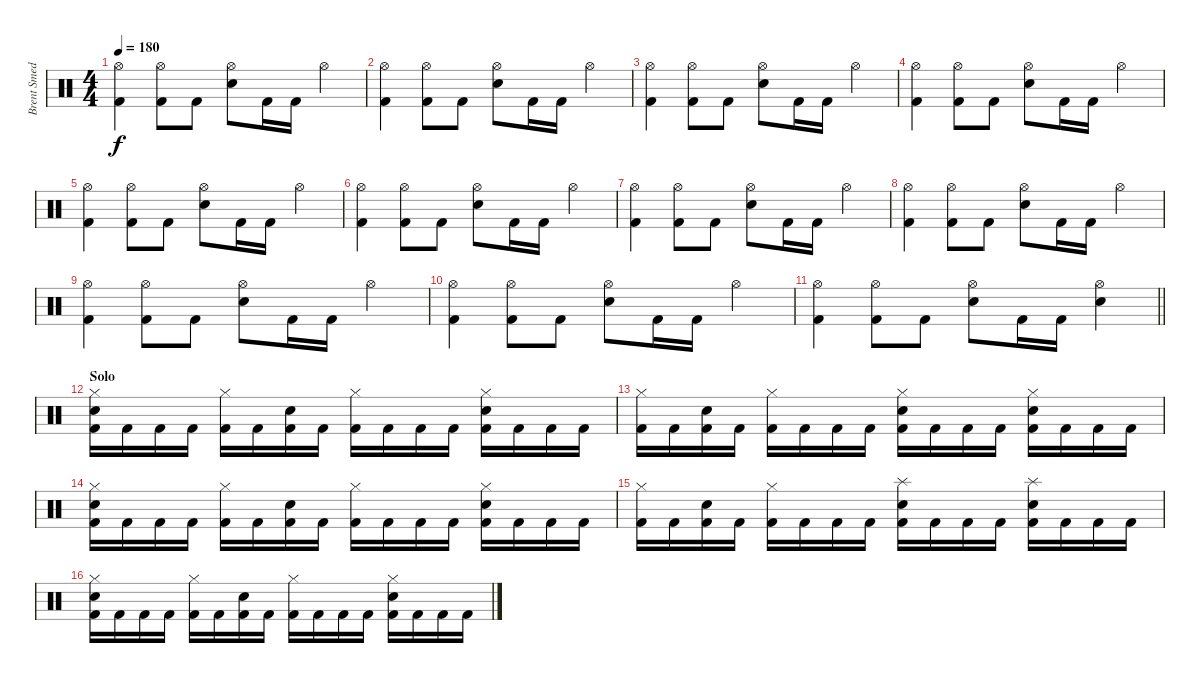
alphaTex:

\track ("Brent Smedley" "Brent Smed") {instrument percussion}
\staff {score}
\articulation defaults
\ts (4 4)
\tempo 180
\clef neutral
\ks c
("Hi-Hat (open)" "Kick (hit) 2").4{dy f} ("Hi-Hat (open)" "Kick (hit) 2").8 "Kick (hit) 2".8 ("Hi-Hat (open)" "Snare (hit) 2").8 "Kick (hit) 2".16 "Kick (hit) 2".16 "Hi-Hat (open)".4 |
("Hi-Hat (open)" "Kick (hit) 2").4 ("Hi-Hat (open)" "Kick (hit) 2").8 "Kick (hit) 2".8 ("Hi-Hat (open)" "Snare (hit) 2").8 "Kick (hit) 2".16 "Kick (hit) 2".16 "Hi-Hat (open)".4 |
("Hi-Hat (open)" "Kick (hit) 2").4 ("Hi-Hat (open)" "Kick (hit) 2").8 "Kick (hit) 2".8 ("Hi-Hat (open)" "Snare (hit) 2").8 "Kick (hit) 2".16 "Kick (hit) 2".16 "Hi-Hat (open)".4 |
("Hi-Hat (open)" "Kick (hit) 2").4 ("Hi-Hat (open)" "Kick (hit) 2").8 "Kick (hit) 2".8 ("Hi-Hat (open)" "Snare (hit) 2").8 "Kick (hit) 2".16 "Kick (hit) 2".16 "Hi-Hat (open)".4 |
("Hi-Hat (open)" "Kick (hit) 2").4 ("Hi-Hat (open)" "Kick (hit) 2").8 "Kick (hit) 2".8 ("Hi-Hat (open)" "Snare (hit) 2").8 "Kick (hit) 2".16 "Kick (hit) 2".16 "Hi-Hat (open)".4 |
("Hi-Hat (open)" "Kick (hit) 2").4 ("Hi-Hat (open)" "Kick (hit) 2").8 "Kick (hit) 2".8 ("Hi-Hat (open)" "Snare (hit) 2").8 "Kick (hit) 2".16 "Kick (hit) 2".16 "Hi-Hat (open)".4 |
("Hi-Hat (open)" "Kick (hit) 2").4 ("Hi-Hat (open)" "Kick (hit) 2").8 "Kick (hit) 2".8 ("Hi-Hat (open)" "Snare (hit) 2").8 "Kick (hit) 2".16 "Kick (hit) 2".16 "Hi-Hat (open)".4 |
("Hi-Hat (open)" "Kick (hit) 2").4 ("Hi-Hat (open)" "Kick (hit) 2").8 "Kick (hit) 2".8 ("Hi-Hat (open)" "Snare (hit) 2").8 "Kick (hit) 2".16 "Kick (hit) 2".16 "Hi-Hat (open)".4 |
("Hi-Hat (open)" "Kick (hit) 2").4 ("Hi-Hat (open)" "Kick (hit) 2").8 "Kick (hit) 2".8 ("Hi-Hat (open)" "Snare (hit) 2").8 "Kick (hit) 2".16 "Kick (hit) 2".16 "Hi-Hat (open)".4 |
("Hi-Hat (open)" "Kick (hit) 2").4 ("Hi-Hat (open)" "Kick (hit) 2").8 "Kick (hit) 2".8 ("Hi-Hat (open)" "Snare (hit) 2").8 "Kick (hit) 2".16 "Kick (hit) 2".16 "Hi-Hat (open)".4 |
\barLineRight lightlight
("Hi-Hat (open)" "Kick (hit) 2").4 ("Hi-Hat (open)" "Kick (hit) 2").8 "Kick (hit) 2".8 ("Hi-Hat (open)" "Snare (hit) 2").8 "Kick (hit) 2".16 "Kick (hit) 2".16 ("Hi-Hat (open)" "Snare (hit) 2").4 |
\section ("" "Solo")
("Hi-Hat (closed)" "Snare (hit) 2" "Kick (hit) 2").16 "Kick (hit) 2".16 "Kick (hit) 2".16 "Kick (hit) 2".16 ("Hi-Hat (closed)" "Kick (hit) 2").16 "Kick (hit) 2".16 ("Snare (hit) 2" "Kick (hit) 2").16 "Kick (hit) 2".16 ("Hi-Hat (closed)" "Kick (hit) 2").16 "Kick (hit) 2".16 "Kick (hit) 2".16 "Kick (hit) 2".16 ("Hi-Hat (closed)" "Snare (hit) 2" "Kick (hit) 2").16 "Kick (hit) 2".16 "Kick (hit) 2".16 "Kick (hit) 2".16 |
("Hi-Hat (closed)" "Kick (hit) 2").16 "Kick (hit) 2".16 ("Snare (hit) 2" "Kick (hit) 2").16 "Kick (hit) 2".16 ("Hi-Hat (closed)" "Kick (hit) 2").16 "Kick (hit) 2".16 "Kick (hit) 2".16 "Kick (hit) 2".16 ("Hi-Hat (closed)" "Snare (hit) 2" "Kick (hit) 2").16 "Kick (hit) 2".16 "Kick (hit) 2".16 "Kick (hit) 2".16 ("Hi-Hat (closed)" "Snare (hit) 2" "Kick (hit) 2").16 "Kick (hit) 2".16 "Kick (hit) 2".16 "Kick (hit) 2".16 |
("Hi-Hat (closed)" "Snare (hit) 2" "Kick (hit) 2").16 "Kick (hit) 2".16 "Kick (hit) 2".16 "Kick (hit) 2".16 ("Hi-Hat (closed)" "Kick (hit) 2").16 "Kick (hit) 2".16 ("Snare (hit) 2" "Kick (hit) 2").16 "Kick (hit) 2".16 ("Hi-Hat (closed)" "Kick (hit) 2").16 "Kick (hit) 2".16 "Kick (hit) 2".16 "Kick (hit) 2".16 ("Hi-Hat (closed)" "Snare (hit) 2" "Kick (hit) 2").16 "Kick (hit) 2".16 "Kick (hit) 2".16 "Kick (hit) 2".16 |
("Hi-Hat (closed)" "Kick (hit) 2").16 "Kick (hit) 2".16 ("Snare (hit) 2" "Kick (hit) 2").16 "Kick (hit) 2".16 ("Hi-Hat (closed)" "Kick (hit) 2").16 "Kick (hit) 2".16 "Kick (hit) 2".16 "Kick (hit) 2".16 ("Splash (hit)" "Snare (hit) 2" "Kick (hit) 2").16 "Kick (hit) 2".16 "Kick (hit) 2".16 "Kick (hit) 2".16 ("Splash (hit)" "Snare (hit) 2" "Kick (hit) 2").16 "Kick (hit) 2".16 "Kick (hit) 2".16 "Kick (hit) 2".16 |
("Hi-Hat (closed)" "Snare (hit) 2" "Kick (hit) 2").16 "Kick (hit) 2".16 "Kick (hit) 2".16 "Kick (hit) 2".16 ("Hi-Hat (closed)" "Kick (hit) 2").16 "Kick (hit) 2".16 ("Snare (hit) 2" "Kick (hit) 2").16 "Kick (hit) 2".16 ("Hi-Hat (closed)" "Kick (hit) 2").16 "Kick (hit) 2".16 "Kick (hit) 2".16 "Kick (hit) 2".16 ("Hi-Hat (closed)" "Snare (hit) 2" "Kick (hit) 2").16 "Kick (hit) 2".16 "Kick (hit) 2".16 "Kick (hit) 2".16
